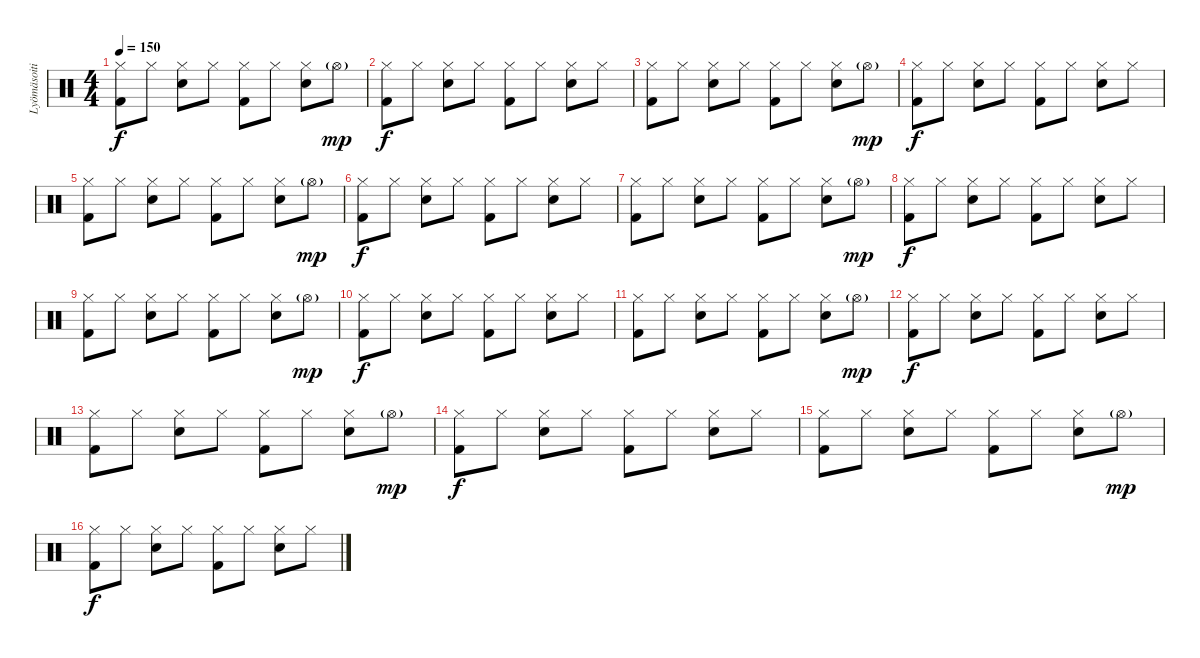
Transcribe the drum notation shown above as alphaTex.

\track ("Lyömäsoitin" "Lyömäsoiti") {instrument percussion}
\staff {score}
\articulation defaults
\ts (4 4)
\tempo 150
\clef neutral
\ks c
("Kick (hit) 2" "Hi-Hat (closed)").8{dy f} "Hi-Hat (closed)".8 ("Snare (hit) 2" "Hi-Hat (closed)").8 "Hi-Hat (closed)".8 ("Kick (hit) 2" "Hi-Hat (closed)").8 "Hi-Hat (closed)".8 ("Snare (hit) 2" "Hi-Hat (closed)").8 "Hi-Hat (open)"{g}.8{dy mp} |
("Kick (hit) 2" "Hi-Hat (closed)").8{dy f} "Hi-Hat (closed)".8 ("Snare (hit) 2" "Hi-Hat (closed)").8 "Hi-Hat (closed)".8 ("Kick (hit) 2" "Hi-Hat (closed)").8 "Hi-Hat (closed)".8 ("Snare (hit) 2" "Hi-Hat (closed)").8 "Hi-Hat (closed)".8 |
("Kick (hit) 2" "Hi-Hat (closed)").8 "Hi-Hat (closed)".8 ("Snare (hit) 2" "Hi-Hat (closed)").8 "Hi-Hat (closed)".8 ("Kick (hit) 2" "Hi-Hat (closed)").8 "Hi-Hat (closed)".8 ("Snare (hit) 2" "Hi-Hat (closed)").8 "Hi-Hat (open)"{g}.8{dy mp} |
("Kick (hit) 2" "Hi-Hat (closed)").8{dy f} "Hi-Hat (closed)".8 ("Snare (hit) 2" "Hi-Hat (closed)").8 "Hi-Hat (closed)".8 ("Kick (hit) 2" "Hi-Hat (closed)").8 "Hi-Hat (closed)".8 ("Snare (hit) 2" "Hi-Hat (closed)").8 "Hi-Hat (closed)".8 |
("Kick (hit) 2" "Hi-Hat (closed)").8 "Hi-Hat (closed)".8 ("Snare (hit) 2" "Hi-Hat (closed)").8 "Hi-Hat (closed)".8 ("Kick (hit) 2" "Hi-Hat (closed)").8 "Hi-Hat (closed)".8 ("Snare (hit) 2" "Hi-Hat (closed)").8 "Hi-Hat (open)"{g}.8{dy mp} |
("Kick (hit) 2" "Hi-Hat (closed)").8{dy f} "Hi-Hat (closed)".8 ("Snare (hit) 2" "Hi-Hat (closed)").8 "Hi-Hat (closed)".8 ("Kick (hit) 2" "Hi-Hat (closed)").8 "Hi-Hat (closed)".8 ("Snare (hit) 2" "Hi-Hat (closed)").8 "Hi-Hat (closed)".8 |
("Kick (hit) 2" "Hi-Hat (closed)").8 "Hi-Hat (closed)".8 ("Snare (hit) 2" "Hi-Hat (closed)").8 "Hi-Hat (closed)".8 ("Kick (hit) 2" "Hi-Hat (closed)").8 "Hi-Hat (closed)".8 ("Snare (hit) 2" "Hi-Hat (closed)").8 "Hi-Hat (open)"{g}.8{dy mp} |
("Kick (hit) 2" "Hi-Hat (closed)").8{dy f} "Hi-Hat (closed)".8 ("Snare (hit) 2" "Hi-Hat (closed)").8 "Hi-Hat (closed)".8 ("Kick (hit) 2" "Hi-Hat (closed)").8 "Hi-Hat (closed)".8 ("Snare (hit) 2" "Hi-Hat (closed)").8 "Hi-Hat (closed)".8 |
("Kick (hit) 2" "Hi-Hat (closed)").8 "Hi-Hat (closed)".8 ("Snare (hit) 2" "Hi-Hat (closed)").8 "Hi-Hat (closed)".8 ("Kick (hit) 2" "Hi-Hat (closed)").8 "Hi-Hat (closed)".8 ("Snare (hit) 2" "Hi-Hat (closed)").8 "Hi-Hat (open)"{g}.8{dy mp} |
("Kick (hit) 2" "Hi-Hat (closed)").8{dy f} "Hi-Hat (closed)".8 ("Snare (hit) 2" "Hi-Hat (closed)").8 "Hi-Hat (closed)".8 ("Kick (hit) 2" "Hi-Hat (closed)").8 "Hi-Hat (closed)".8 ("Snare (hit) 2" "Hi-Hat (closed)").8 "Hi-Hat (closed)".8 |
("Kick (hit) 2" "Hi-Hat (closed)").8{volume 10} "Hi-Hat (closed)".8 ("Snare (hit) 2" "Hi-Hat (closed)").8 "Hi-Hat (closed)".8 ("Kick (hit) 2" "Hi-Hat (closed)").8 "Hi-Hat (closed)".8 ("Snare (hit) 2" "Hi-Hat (closed)").8 "Hi-Hat (open)"{g}.8{dy mp} |
("Kick (hit) 2" "Hi-Hat (closed)").8{dy f} "Hi-Hat (closed)".8 ("Snare (hit) 2" "Hi-Hat (closed)").8 "Hi-Hat (closed)".8 ("Kick (hit) 2" "Hi-Hat (closed)").8 "Hi-Hat (closed)".8 ("Snare (hit) 2" "Hi-Hat (closed)").8 "Hi-Hat (closed)".8 |
("Kick (hit) 2" "Hi-Hat (closed)").8 "Hi-Hat (closed)".8 ("Snare (hit) 2" "Hi-Hat (closed)").8 "Hi-Hat (closed)".8 ("Kick (hit) 2" "Hi-Hat (closed)").8 "Hi-Hat (closed)".8 ("Snare (hit) 2" "Hi-Hat (closed)").8 "Hi-Hat (open)"{g}.8{dy mp} |
("Kick (hit) 2" "Hi-Hat (closed)").8{dy f} "Hi-Hat (closed)".8 ("Snare (hit) 2" "Hi-Hat (closed)").8 "Hi-Hat (closed)".8 ("Kick (hit) 2" "Hi-Hat (closed)").8 "Hi-Hat (closed)".8 ("Snare (hit) 2" "Hi-Hat (closed)").8 "Hi-Hat (closed)".8 |
("Kick (hit) 2" "Hi-Hat (closed)").8 "Hi-Hat (closed)".8 ("Snare (hit) 2" "Hi-Hat (closed)").8 "Hi-Hat (closed)".8 ("Kick (hit) 2" "Hi-Hat (closed)").8 "Hi-Hat (closed)".8 ("Snare (hit) 2" "Hi-Hat (closed)").8 "Hi-Hat (open)"{g}.8{dy mp} |
("Kick (hit) 2" "Hi-Hat (closed)").8{dy f} "Hi-Hat (closed)".8 ("Snare (hit) 2" "Hi-Hat (closed)").8 "Hi-Hat (closed)".8 ("Kick (hit) 2" "Hi-Hat (closed)").8 "Hi-Hat (closed)".8 ("Snare (hit) 2" "Hi-Hat (closed)").8 "Hi-Hat (closed)".8
